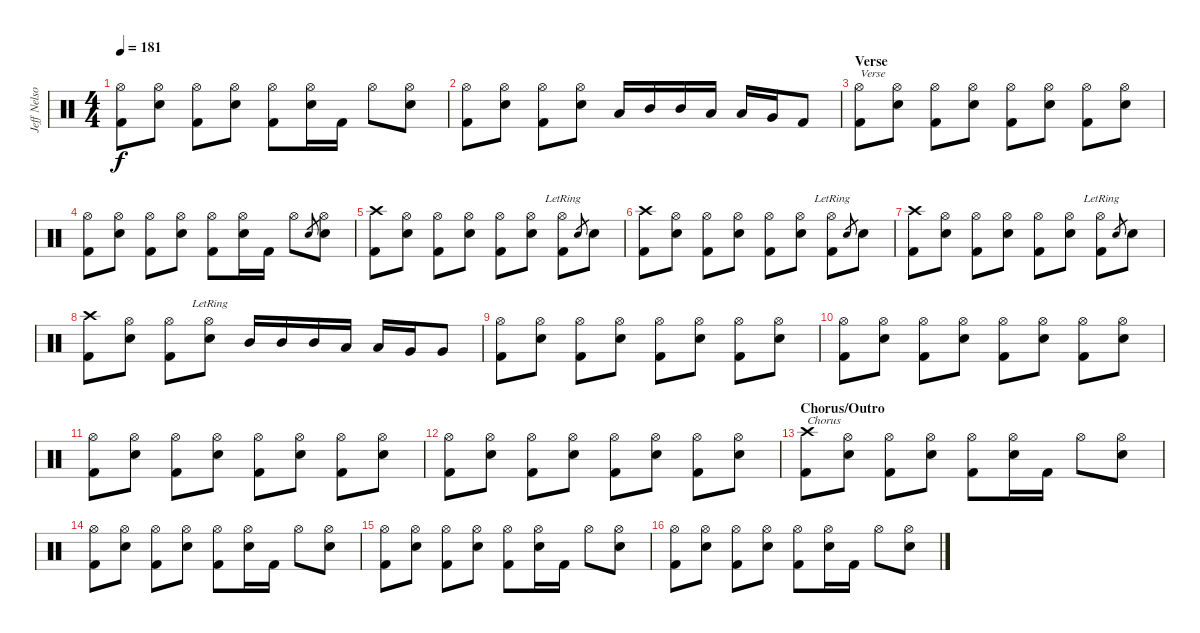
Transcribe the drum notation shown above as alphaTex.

\track ("Jeff Nelson" "Jeff Nelso") {instrument percussion}
\staff {score}
\articulation defaults
\ts (4 4)
\tempo 181
\clef neutral
\ks c
("Kick (hit) 2" "Hi-Hat (open)").8{dy f} ("Snare (hit) 2" "Hi-Hat (open)").8 ("Kick (hit) 2" "Hi-Hat (open)").8 ("Snare (hit) 2" "Hi-Hat (open)").8 ("Kick (hit) 2" "Hi-Hat (open)").8 ("Snare (hit) 2" "Hi-Hat (open)").16 "Kick (hit) 2".16 "Hi-Hat (open)".8 ("Snare (hit) 2" "Hi-Hat (open)").8 |
("Kick (hit) 2" "Hi-Hat (open)").8 ("Snare (hit) 2" "Hi-Hat (open)").8 ("Kick (hit) 2" "Hi-Hat (open)").8 ("Snare (hit) 2" "Hi-Hat (open)").8 "Low Tom (hit)".16 "Mid Tom (hit)".16 "Mid Tom (hit)".16 "Low Tom (hit)".16 "Low Tom (hit)".16 "Very Low Tom (hit)".16 "Kick (hit) 2".8 |
\section ("" "Verse")
("Kick (hit) 2" "Hi-Hat (open)").8{txt "Verse"} ("Snare (hit) 2" "Hi-Hat (open)").8 ("Kick (hit) 2" "Hi-Hat (open)").8 ("Snare (hit) 2" "Hi-Hat (open)").8 ("Kick (hit) 2" "Hi-Hat (open)").8 ("Snare (hit) 2" "Hi-Hat (open)").8 ("Kick (hit) 2" "Hi-Hat (open)").8 ("Snare (hit) 2" "Hi-Hat (open)").8 |
("Kick (hit) 2" "Hi-Hat (open)").8 ("Snare (hit) 2" "Hi-Hat (open)").8 ("Kick (hit) 2" "Hi-Hat (open)").8 ("Snare (hit) 2" "Hi-Hat (open)").8 ("Kick (hit) 2" "Hi-Hat (open)").8 ("Snare (hit) 2" "Hi-Hat (open)").16 "Kick (hit) 2".16 "Hi-Hat (open)".8 "Snare (hit) 2".8{gr} ("Snare (hit) 2" "Hi-Hat (open)").8 |
("Kick (hit) 2" "Crash high (hit)").8 ("Snare (hit) 2" "Hi-Hat (open)").8 ("Kick (hit) 2" "Hi-Hat (open)").8 ("Snare (hit) 2" "Hi-Hat (open)").8 ("Kick (hit) 2" "Hi-Hat (open)").8 ("Snare (hit) 2" "Hi-Hat (open)").8 ("Kick (hit) 2" "Hi-Hat (open)"{lr}).8 "Snare (hit) 2".8{gr} "Snare (hit) 2".8 |
("Kick (hit) 2" "Crash high (hit)").8 ("Snare (hit) 2" "Hi-Hat (open)").8 ("Kick (hit) 2" "Hi-Hat (open)").8 ("Snare (hit) 2" "Hi-Hat (open)").8 ("Kick (hit) 2" "Hi-Hat (open)").8 ("Snare (hit) 2" "Hi-Hat (open)").8 ("Kick (hit) 2" "Hi-Hat (open)"{lr}).8 "Snare (hit) 2".8{gr} "Snare (hit) 2".8 |
("Kick (hit) 2" "Crash high (hit)").8 ("Snare (hit) 2" "Hi-Hat (open)").8 ("Kick (hit) 2" "Hi-Hat (open)").8 ("Snare (hit) 2" "Hi-Hat (open)").8 ("Kick (hit) 2" "Hi-Hat (open)").8 ("Snare (hit) 2" "Hi-Hat (open)").8 ("Kick (hit) 2" "Hi-Hat (open)"{lr}).8 "Snare (hit) 2".8{gr} "Snare (hit) 2".8 |
("Kick (hit) 2" "Crash high (hit)").8 ("Snare (hit) 2" "Hi-Hat (open)").8 ("Kick (hit) 2" "Hi-Hat (open)").8 ("Snare (hit) 2" "Hi-Hat (open)"{lr}).8 "Mid Tom (hit)".16 "Mid Tom (hit)".16 "Mid Tom (hit)".16 "Low Tom (hit)".16 "Low Tom (hit)".16 "Very Low Tom (hit)".16 "Very Low Tom (hit)".8 |
("Kick (hit) 2" "Hi-Hat (open)").8 ("Snare (hit) 2" "Hi-Hat (open)").8 ("Kick (hit) 2" "Hi-Hat (open)").8 ("Snare (hit) 2" "Hi-Hat (open)").8 ("Kick (hit) 2" "Hi-Hat (open)").8 ("Snare (hit) 2" "Hi-Hat (open)").8 ("Kick (hit) 2" "Hi-Hat (open)").8 ("Snare (hit) 2" "Hi-Hat (open)").8 |
("Kick (hit) 2" "Hi-Hat (open)").8 ("Snare (hit) 2" "Hi-Hat (open)").8 ("Kick (hit) 2" "Hi-Hat (open)").8 ("Snare (hit) 2" "Hi-Hat (open)").8 ("Kick (hit) 2" "Hi-Hat (open)").8 ("Snare (hit) 2" "Hi-Hat (open)").8 ("Kick (hit) 2" "Hi-Hat (open)").8 ("Snare (hit) 2" "Hi-Hat (open)").8 |
("Kick (hit) 2" "Hi-Hat (open)").8 ("Snare (hit) 2" "Hi-Hat (open)").8 ("Kick (hit) 2" "Hi-Hat (open)").8 ("Snare (hit) 2" "Hi-Hat (open)").8 ("Kick (hit) 2" "Hi-Hat (open)").8 ("Snare (hit) 2" "Hi-Hat (open)").8 ("Kick (hit) 2" "Hi-Hat (open)").8 ("Snare (hit) 2" "Hi-Hat (open)").8 |
("Kick (hit) 2" "Hi-Hat (open)").8 ("Snare (hit) 2" "Hi-Hat (open)").8 ("Kick (hit) 2" "Hi-Hat (open)").8 ("Snare (hit) 2" "Hi-Hat (open)").8 ("Kick (hit) 2" "Hi-Hat (open)").8 ("Snare (hit) 2" "Hi-Hat (open)").8 ("Kick (hit) 2" "Hi-Hat (open)").8 ("Snare (hit) 2" "Hi-Hat (open)").8 |
\section ("" "Chorus/Outro")
("Kick (hit) 2" "Crash high (hit)").8{txt "Chorus"} ("Snare (hit) 2" "Hi-Hat (open)").8 ("Kick (hit) 2" "Hi-Hat (open)").8 ("Snare (hit) 2" "Hi-Hat (open)").8 ("Kick (hit) 2" "Hi-Hat (open)").8 ("Snare (hit) 2" "Hi-Hat (open)").16 "Kick (hit) 2".16 "Hi-Hat (open)".8 ("Snare (hit) 2" "Hi-Hat (open)").8 |
("Kick (hit) 2" "Hi-Hat (open)").8 ("Snare (hit) 2" "Hi-Hat (open)").8 ("Kick (hit) 2" "Hi-Hat (open)").8 ("Snare (hit) 2" "Hi-Hat (open)").8 ("Kick (hit) 2" "Hi-Hat (open)").8 ("Snare (hit) 2" "Hi-Hat (open)").16 "Kick (hit) 2".16 "Hi-Hat (open)".8 ("Snare (hit) 2" "Hi-Hat (open)").8 |
("Kick (hit) 2" "Hi-Hat (open)").8 ("Snare (hit) 2" "Hi-Hat (open)").8 ("Kick (hit) 2" "Hi-Hat (open)").8 ("Snare (hit) 2" "Hi-Hat (open)").8 ("Kick (hit) 2" "Hi-Hat (open)").8 ("Snare (hit) 2" "Hi-Hat (open)").16 "Kick (hit) 2".16 "Hi-Hat (open)".8 ("Snare (hit) 2" "Hi-Hat (open)").8 |
("Kick (hit) 2" "Hi-Hat (open)").8 ("Snare (hit) 2" "Hi-Hat (open)").8 ("Kick (hit) 2" "Hi-Hat (open)").8 ("Snare (hit) 2" "Hi-Hat (open)").8 ("Kick (hit) 2" "Hi-Hat (open)").8 ("Snare (hit) 2" "Hi-Hat (open)").16 "Kick (hit) 2".16 "Hi-Hat (open)".8 ("Snare (hit) 2" "Hi-Hat (open)").8
